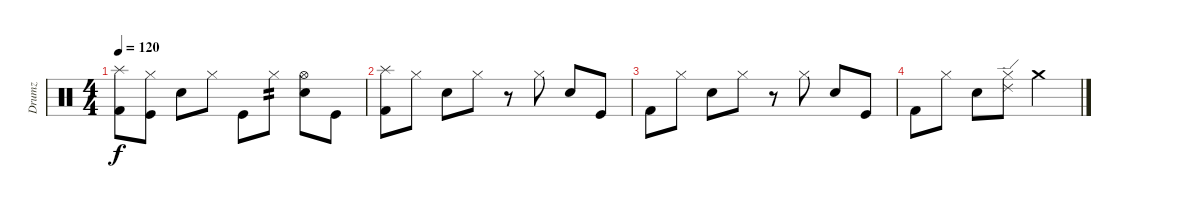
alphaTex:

\track ("Drumz" "Drumz") {instrument percussion}
\staff {score}
\articulation defaults
\ts (4 4)
\tempo 120
\clef neutral
\ks c
("Splash (hit)" "Kick (hit) 2").8{dy f} ("Hi-Hat (closed)" "Kick (hit)").8 "Electric Snare (hit)".8 "Hi-Hat (closed)".8 "Kick (hit)".8 "Hi-Hat (closed)".8{tp 2} ("Hi-Hat (open)" "Electric Snare (hit)").8 "Kick (hit)".8 |
("Splash (hit)" "Kick (hit) 2").8 "Hi-Hat (closed)".8 "Electric Snare (hit)".8 "Hi-Hat (closed)".8 r.8 "Hi-Hat (closed)".8 "Electric Snare (hit)".8 "Kick (hit)".8 |
"Kick (hit) 2".8 "Hi-Hat (closed)".8 "Electric Snare (hit)".8 "Hi-Hat (closed)".8 r.8 "Hi-Hat (closed)".8 "Electric Snare (hit)".8 "Kick (hit)".8 |
"Kick (hit) 2".8 "Hi-Hat (closed)".8 "Electric Snare (hit)".8 ("Ride (edge) 2" "Hi-Hat (closed)").8 "Crash medium (hit)".2
